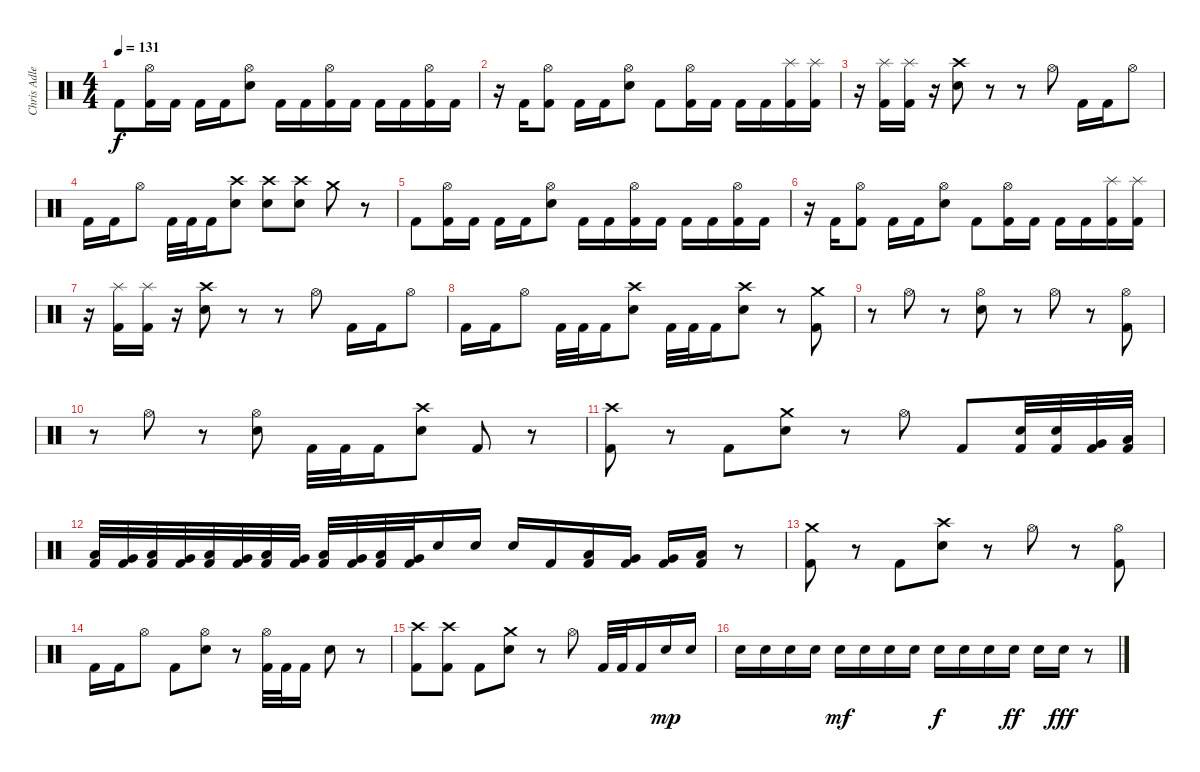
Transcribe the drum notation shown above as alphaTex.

\track ("Chris Adler - Drums" "Chris Adle") {instrument percussion}
\staff {score}
\articulation defaults
\ts (4 4)
\tempo 131
\clef neutral
\ks c "Kick (hit) 2".8{dy f}
("Hi-Hat (open)" "Kick (hit) 2").16 "Kick (hit) 2".16 "Kick (hit) 2".16 "Kick (hit) 2".16 ("Hi-Hat (open)" "Snare (hit) 2").8 "Kick (hit) 2".16 "Kick (hit) 2".16 ("Hi-Hat (open)" "Kick (hit) 2").16 "Kick (hit) 2".16 "Kick (hit) 2".16 "Kick (hit) 2".16 ("Hi-Hat (open)" "Kick (hit) 2").16 "Kick (hit) 2".16 |
r.16 "Kick (hit) 2".16 ("Hi-Hat (open)" "Kick (hit) 2").8 "Kick (hit) 2".16 "Kick (hit) 2".16 ("Hi-Hat (open)" "Snare (hit) 2").8 "Kick (hit) 2".8 ("Hi-Hat (open)" "Kick (hit) 2").16 "Kick (hit) 2".16 "Kick (hit) 2".16 "Kick (hit) 2".16 ("Splash (hit)" "Kick (hit) 2").16 ("Splash (hit)" "Kick (hit) 2").16 |
r.16 ("Splash (hit)" "Kick (hit) 2").16 ("Splash (hit)" "Kick (hit) 2").16 r.16 ("Crash high (hit)" "Snare (hit) 2").8 r.8 r.8 "Hi-Hat (open)".8 "Kick (hit) 2".16 "Kick (hit) 2".16 "Hi-Hat (open)".8 |
"Kick (hit) 2".16 "Kick (hit) 2".16 "Hi-Hat (open)".8 "Kick (hit) 2".32 "Kick (hit) 2".32 "Kick (hit) 2".16 ("Crash high (hit)" "Snare (hit) 2").8 ("Crash high (hit)" "Snare (hit) 2").8 ("Crash high (hit)" "Snare (hit) 2").8 "Crash medium (hit)".8 r.8 |
"Kick (hit) 2".8 ("Hi-Hat (open)" "Kick (hit) 2").16 "Kick (hit) 2".16 "Kick (hit) 2".16 "Kick (hit) 2".16 ("Hi-Hat (open)" "Snare (hit) 2").8 "Kick (hit) 2".16 "Kick (hit) 2".16 ("Hi-Hat (open)" "Kick (hit) 2").16 "Kick (hit) 2".16 "Kick (hit) 2".16 "Kick (hit) 2".16 ("Hi-Hat (open)" "Kick (hit) 2").16 "Kick (hit) 2".16 |
r.16 "Kick (hit) 2".16 ("Hi-Hat (open)" "Kick (hit) 2").8 "Kick (hit) 2".16 "Kick (hit) 2".16 ("Hi-Hat (open)" "Snare (hit) 2").8 "Kick (hit) 2".8 ("Hi-Hat (open)" "Kick (hit) 2").16 "Kick (hit) 2".16 "Kick (hit) 2".16 "Kick (hit) 2".16 ("Splash (hit)" "Kick (hit) 2").16 ("Splash (hit)" "Kick (hit) 2").16 |
r.16 ("Splash (hit)" "Kick (hit) 2").16 ("Splash (hit)" "Kick (hit) 2").16 r.16 ("Crash high (hit)" "Snare (hit) 2").8 r.8 r.8 "Hi-Hat (open)".8 "Kick (hit) 2".16 "Kick (hit) 2".16 "Hi-Hat (open)".8 |
"Kick (hit) 2".16 "Kick (hit) 2".16 "Hi-Hat (open)".8 "Kick (hit) 2".32 "Kick (hit) 2".32 "Kick (hit) 2".16 ("Crash high (hit)" "Snare (hit) 2").8 "Kick (hit) 2".32 "Kick (hit) 2".32 "Kick (hit) 2".16 ("Crash high (hit)" "Snare (hit) 2").8 r.8 ("Crash medium (hit)" "Kick (hit) 2").8 |
r.8 "Hi-Hat (open)".8 r.8 ("Hi-Hat (open)" "Snare (hit) 2").8 r.8 "Hi-Hat (open)".8 r.8 ("Hi-Hat (open)" "Kick (hit) 2").8 |
r.8 "Hi-Hat (open)".8 r.8 ("Hi-Hat (open)" "Snare (hit) 2").8 "Kick (hit) 2".32 "Kick (hit) 2".32 "Kick (hit) 2".16 ("Crash high (hit)" "Snare (hit) 2").8 "Kick (hit) 2".8 r.8 |
("Crash high (hit)" "Kick (hit) 2").8 r.8 "Kick (hit) 2".8 ("Crash medium (hit)" "Snare (hit) 2").8 r.8 "Hi-Hat (open)".8 "Kick (hit) 2".8 ("Snare (hit) 2" "Kick (hit) 2").32 ("Snare (hit) 2" "Kick (hit) 2").32 ("Very Low Tom (hit)" "Kick (hit) 2").32 ("Low Floor Tom (hit)" "Kick (hit) 2").32 |
("Low Floor Tom (hit)" "Kick (hit) 2").32 ("Very Low Tom (hit)" "Kick (hit) 2").32 ("Low Floor Tom (hit)" "Kick (hit) 2").32 ("Very Low Tom (hit)" "Kick (hit) 2").32 ("Low Floor Tom (hit)" "Kick (hit) 2").32 ("Very Low Tom (hit)" "Kick (hit) 2").32 ("Low Floor Tom (hit)" "Kick (hit) 2").32 ("Very Low Tom (hit)" "Kick (hit) 2").32 ("Low Floor Tom (hit)" "Kick (hit) 2").32 ("Very Low Tom (hit)" "Kick (hit) 2").32 ("Low Floor Tom (hit)" "Kick (hit) 2").32 ("Very Low Tom (hit)" "Kick (hit) 2").32 "Snare (hit) 2".16 "Snare (hit) 2".16 "Snare (hit) 2".16 "Kick (hit) 2".16 ("Low Tom (hit)" "Kick (hit) 2").16 ("Very Low Tom (hit)" "Kick (hit) 2").16 ("Very Low Tom (hit)" "Kick (hit) 2").16 ("Low Floor Tom (hit)" "Kick (hit) 2").16 r.8 |
("Crash medium (hit)" "Kick (hit) 2").8 r.8 "Kick (hit) 2".8 ("Crash high (hit)" "Snare (hit) 2").8 r.8 "Hi-Hat (open)".8 r.8 ("Hi-Hat (open)" "Kick (hit) 2").8 |
"Kick (hit) 2".16 "Kick (hit) 2".16 "Hi-Hat (open)".8 "Kick (hit) 2".8 ("Hi-Hat (open)" "Snare (hit) 2").8 r.8 ("Hi-Hat (open)" "Kick (hit) 2").32 "Kick (hit) 2".32 "Kick (hit) 2".16 "Snare (hit) 2".8 r.8 |
("Crash high (hit)" "Kick (hit) 2").8 ("Crash high (hit)" "Kick (hit) 2").8 "Kick (hit) 2".8 ("Crash medium (hit)" "Snare (hit) 2").8 r.8 "Hi-Hat (open)".8 "Kick (hit) 2".32 "Kick (hit) 2".32 "Kick (hit) 2".16 "Snare (hit) 2".16{dy mp} "Snare (hit) 2".16 |
"Snare (hit) 2".16 "Snare (hit) 2".16 "Snare (hit) 2".16 "Snare (hit) 2".16 "Snare (hit) 2".16{dy mf} "Snare (hit) 2".16 "Snare (hit) 2".16 "Snare (hit) 2".16 "Snare (hit) 2".16{dy f} "Snare (hit) 2".16 "Snare (hit) 2".16 "Snare (hit) 2".16{dy ff} "Snare (hit) 2".16 "Snare (hit) 2".16{dy fff} r.8
